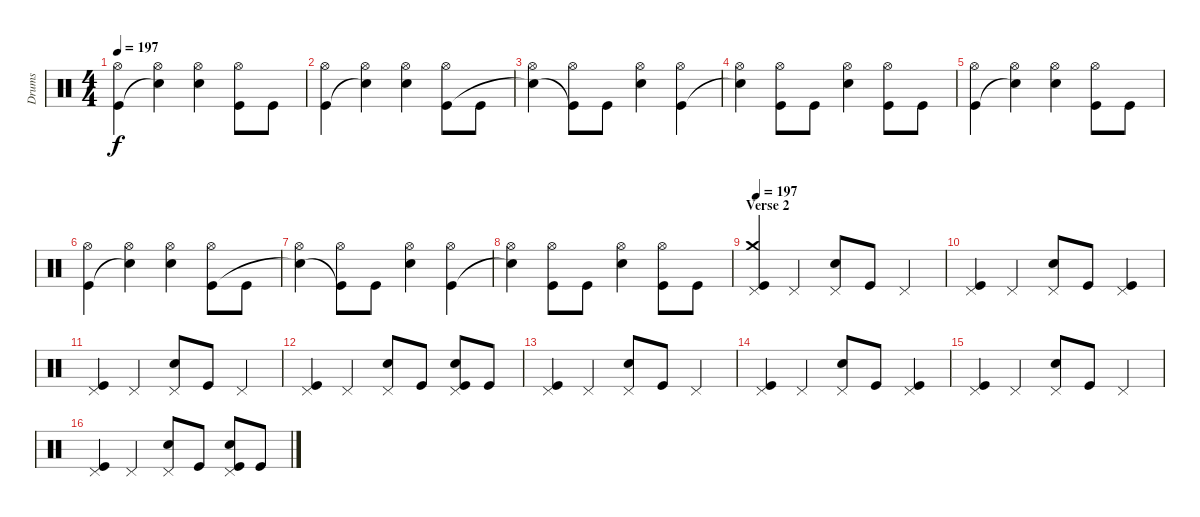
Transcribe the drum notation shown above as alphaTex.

\track ("Drums" "Drums") {instrument percussion}
\staff {score}
\articulation defaults
\ts (4 4)
\tempo 197
\clef neutral
\ks c
("Hi-Hat (open)" "Kick (hit)").4{dy f} ("Hi-Hat (open)" "Snare (hit)"{t}).4 ("Hi-Hat (open)" "Snare (hit) 2").4 ("Hi-Hat (open)" "Kick (hit)").8 "Kick (hit)".8 |
("Hi-Hat (open)" "Kick (hit)").4 ("Hi-Hat (open)" "Snare (hit)"{t}).4 ("Hi-Hat (open)" "Snare (hit) 2").4 ("Hi-Hat (open)" "Kick (hit)").8 "Kick (hit)".8 |
("Hi-Hat (open)" "Snare (hit)"{t}).4 ("Hi-Hat (open)" "Kick (hit)"{t}).8 "Kick (hit)".8 ("Hi-Hat (open)" "Snare (hit) 2").4 ("Hi-Hat (open)" "Kick (hit)").4 |
("Hi-Hat (open)" "Snare (hit)"{t}).4 ("Hi-Hat (open)" "Kick (hit)").8 "Kick (hit)".8 ("Hi-Hat (open)" "Snare (hit) 2").4 ("Hi-Hat (open)" "Kick (hit)").8 "Kick (hit)".8 |
("Hi-Hat (open)" "Kick (hit)").4 ("Hi-Hat (open)" "Snare (hit)"{t}).4 ("Hi-Hat (open)" "Snare (hit) 2").4 ("Hi-Hat (open)" "Kick (hit)").8 "Kick (hit)".8 |
("Hi-Hat (open)" "Kick (hit)").4 ("Hi-Hat (open)" "Snare (hit)"{t}).4 ("Hi-Hat (open)" "Snare (hit) 2").4 ("Hi-Hat (open)" "Kick (hit)").8 "Kick (hit)".8 |
("Hi-Hat (open)" "Snare (hit)"{t}).4 ("Hi-Hat (open)" "Kick (hit)"{t}).8 "Kick (hit)".8 ("Hi-Hat (open)" "Snare (hit) 2").4 ("Hi-Hat (open)" "Kick (hit)").4 |
("Hi-Hat (open)" "Snare (hit)"{t}).4 ("Hi-Hat (open)" "Kick (hit)").8 "Kick (hit)".8 ("Hi-Hat (open)" "Snare (hit) 2").4 ("Hi-Hat (open)" "Kick (hit)").8 "Kick (hit)".8 |
\section ("" "Verse 2")
\tempo 197
("Crash medium (hit)" "Pedal Hi-Hat (hit)" "Kick (hit)").4{volume 16} "Pedal Hi-Hat (hit)".4 ("Pedal Hi-Hat (hit)" "Snare (hit) 2").8 "Kick (hit)".8 "Pedal Hi-Hat (hit)".4 |
("Pedal Hi-Hat (hit)" "Kick (hit)").4 "Pedal Hi-Hat (hit)".4 ("Pedal Hi-Hat (hit)" "Snare (hit) 2").8 "Kick (hit)".8 ("Pedal Hi-Hat (hit)" "Kick (hit)").4 |
("Pedal Hi-Hat (hit)" "Kick (hit)").4 "Pedal Hi-Hat (hit)".4 ("Pedal Hi-Hat (hit)" "Snare (hit) 2").8 "Kick (hit)".8 "Pedal Hi-Hat (hit)".4 |
("Pedal Hi-Hat (hit)" "Kick (hit)").4 "Pedal Hi-Hat (hit)".4 ("Pedal Hi-Hat (hit)" "Snare (hit) 2").8 "Kick (hit)".8 ("Pedal Hi-Hat (hit)" "Snare (hit) 2" "Kick (hit)").8 "Kick (hit)".8 |
("Pedal Hi-Hat (hit)" "Kick (hit)").4 "Pedal Hi-Hat (hit)".4 ("Pedal Hi-Hat (hit)" "Snare (hit) 2").8 "Kick (hit)".8 "Pedal Hi-Hat (hit)".4 |
("Pedal Hi-Hat (hit)" "Kick (hit)").4 "Pedal Hi-Hat (hit)".4 ("Pedal Hi-Hat (hit)" "Snare (hit) 2").8 "Kick (hit)".8 ("Pedal Hi-Hat (hit)" "Kick (hit)").4 |
("Pedal Hi-Hat (hit)" "Kick (hit)").4 "Pedal Hi-Hat (hit)".4 ("Pedal Hi-Hat (hit)" "Snare (hit) 2").8 "Kick (hit)".8 "Pedal Hi-Hat (hit)".4 |
("Pedal Hi-Hat (hit)" "Kick (hit)").4 "Pedal Hi-Hat (hit)".4 ("Pedal Hi-Hat (hit)" "Snare (hit) 2").8 "Kick (hit)".8 ("Pedal Hi-Hat (hit)" "Snare (hit) 2" "Kick (hit)").8 "Kick (hit)".8
